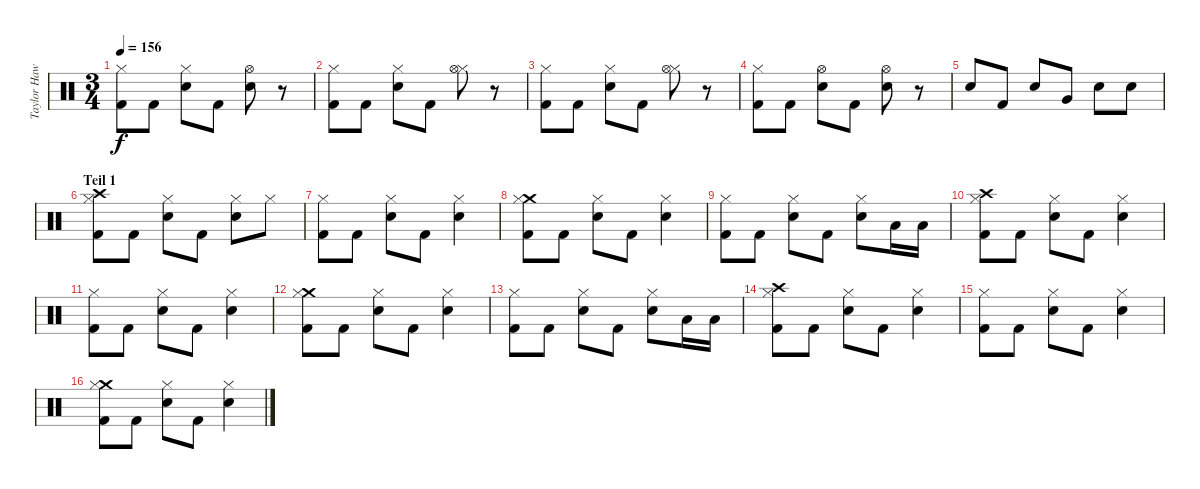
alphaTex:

\track ("Taylor Hawkins" "Taylor Haw") {instrument percussion}
\staff {score}
\articulation defaults
\ts (3 4)
\tempo 156
\clef neutral
\ks c
("Hi-Hat (closed)" "Kick (hit) 2").8{dy f} "Kick (hit) 2".8 ("Hi-Hat (closed)" "Electric Snare (hit)").8 "Kick (hit) 2".8 ("Hi-Hat (open)" "Electric Snare (hit)").8 r.8 |
("Hi-Hat (closed)" "Kick (hit) 2").8 "Kick (hit) 2".8 ("Hi-Hat (closed)" "Electric Snare (hit)").8 "Kick (hit) 2".8 ("Hi-Hat (closed)" "Hi-Hat (open)").8 r.8 |
("Hi-Hat (closed)" "Kick (hit) 2").8 "Kick (hit) 2".8 ("Hi-Hat (closed)" "Electric Snare (hit)").8 "Kick (hit) 2".8 ("Hi-Hat (closed)" "Hi-Hat (open)").8 r.8 |
("Hi-Hat (closed)" "Kick (hit) 2").8 "Kick (hit) 2".8 ("Hi-Hat (open)" "Electric Snare (hit)").8 "Kick (hit) 2".8 ("Hi-Hat (open)" "Electric Snare (hit)").8 r.8 |
"Snare (hit) 2".8 "Kick (hit) 2".8 "Snare (hit) 2".8 "Very Low Tom (hit)".8 "Snare (hit) 2".8 "Snare (hit) 2".8 |
\section ("" "Teil 1")
("Crash high (hit)" "Hi-Hat (closed)" "Kick (hit) 2").8 "Kick (hit) 2".8 ("Electric Snare (hit)" "Hi-Hat (closed)").8 "Kick (hit) 2".8 ("Electric Snare (hit)" "Hi-Hat (closed)").8 "Hi-Hat (closed)".8 |
("Hi-Hat (closed)" "Kick (hit) 2").8 "Kick (hit) 2".8 ("Electric Snare (hit)" "Hi-Hat (closed)").8 "Kick (hit) 2".8 ("Electric Snare (hit)" "Hi-Hat (closed)").4 |
("Crash medium (hit)" "Hi-Hat (closed)" "Kick (hit) 2").8 "Kick (hit) 2".8 ("Electric Snare (hit)" "Hi-Hat (closed)").8 "Kick (hit) 2".8 ("Electric Snare (hit)" "Hi-Hat (closed)").4 |
("Hi-Hat (closed)" "Kick (hit) 2").8 "Kick (hit) 2".8 ("Electric Snare (hit)" "Hi-Hat (closed)").8 "Kick (hit) 2".8 ("Electric Snare (hit)" "Hi-Hat (closed)").8 "Low Tom (hit)".16 "Low Tom (hit)".16 |
("Crash high (hit)" "Hi-Hat (closed)" "Kick (hit) 2").8 "Kick (hit) 2".8 ("Electric Snare (hit)" "Hi-Hat (closed)").8 "Kick (hit) 2".8 ("Electric Snare (hit)" "Hi-Hat (closed)").4 |
("Hi-Hat (closed)" "Kick (hit) 2").8 "Kick (hit) 2".8 ("Electric Snare (hit)" "Hi-Hat (closed)").8 "Kick (hit) 2".8 ("Electric Snare (hit)" "Hi-Hat (closed)").4 |
("Crash medium (hit)" "Hi-Hat (closed)" "Kick (hit) 2").8 "Kick (hit) 2".8 ("Electric Snare (hit)" "Hi-Hat (closed)").8 "Kick (hit) 2".8 ("Electric Snare (hit)" "Hi-Hat (closed)").4 |
("Hi-Hat (closed)" "Kick (hit) 2").8 "Kick (hit) 2".8 ("Electric Snare (hit)" "Hi-Hat (closed)").8 "Kick (hit) 2".8 ("Electric Snare (hit)" "Hi-Hat (closed)").8 "Low Tom (hit)".16 "Low Tom (hit)".16 |
("Crash high (hit)" "Hi-Hat (closed)" "Kick (hit) 2").8 "Kick (hit) 2".8 ("Electric Snare (hit)" "Hi-Hat (closed)").8 "Kick (hit) 2".8 ("Electric Snare (hit)" "Hi-Hat (closed)").4 |
("Hi-Hat (closed)" "Kick (hit) 2").8 "Kick (hit) 2".8 ("Electric Snare (hit)" "Hi-Hat (closed)").8 "Kick (hit) 2".8 ("Electric Snare (hit)" "Hi-Hat (closed)").4 |
("Crash medium (hit)" "Hi-Hat (closed)" "Kick (hit) 2").8 "Kick (hit) 2".8 ("Electric Snare (hit)" "Hi-Hat (closed)").8 "Kick (hit) 2".8 ("Electric Snare (hit)" "Hi-Hat (closed)").4
